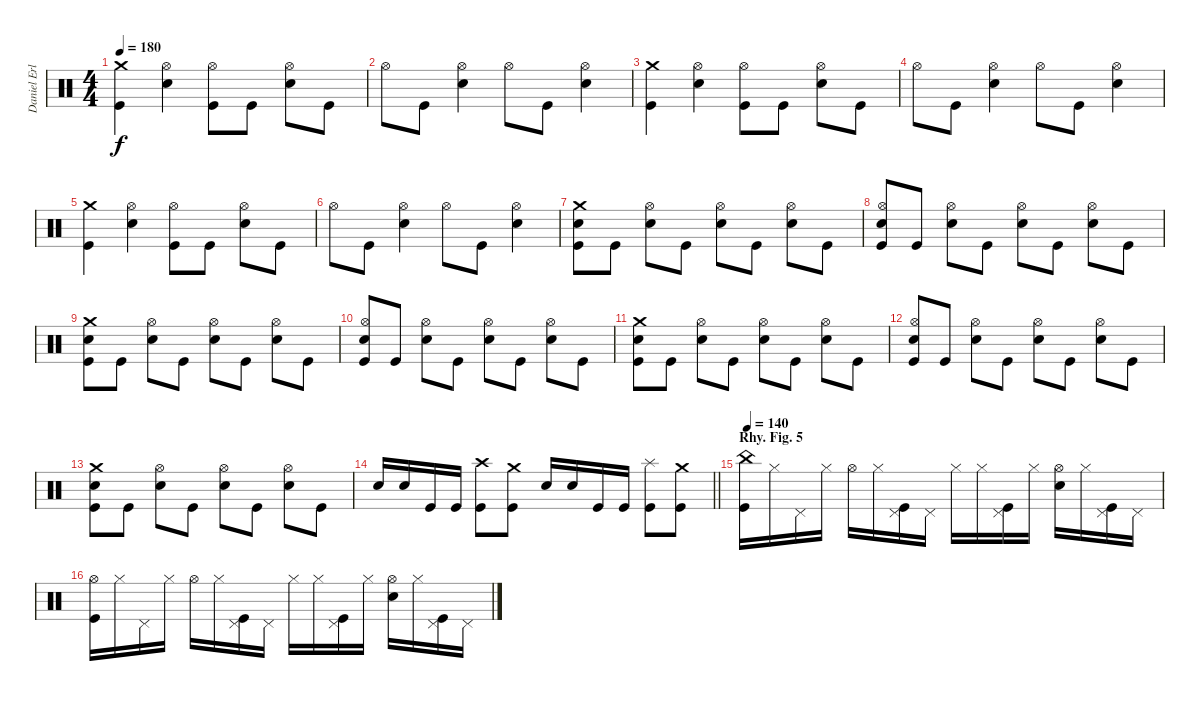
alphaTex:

\track ("Daniel Erlandson" "Daniel Erl") {instrument percussion}
\staff {score}
\articulation defaults
\ts (4 4)
\tempo 180
\clef neutral
\ks c
("Crash medium (hit)" "Kick (hit)").4{dy f} ("Hi-Hat (open)" "Electric Snare (hit)").4 ("Hi-Hat (open)" "Kick (hit)").8 "Kick (hit)".8 ("Hi-Hat (open)" "Electric Snare (hit)").8 "Kick (hit)".8 |
"Hi-Hat (open)".8 "Kick (hit)".8 ("Hi-Hat (open)" "Electric Snare (hit)").4 "Hi-Hat (open)".8 "Kick (hit)".8 ("Hi-Hat (open)" "Electric Snare (hit)").4 |
("Crash medium (hit)" "Kick (hit)").4 ("Hi-Hat (open)" "Electric Snare (hit)").4 ("Hi-Hat (open)" "Kick (hit)").8 "Kick (hit)".8 ("Hi-Hat (open)" "Electric Snare (hit)").8 "Kick (hit)".8 |
"Hi-Hat (open)".8 "Kick (hit)".8 ("Hi-Hat (open)" "Electric Snare (hit)").4 "Hi-Hat (open)".8 "Kick (hit)".8 ("Hi-Hat (open)" "Electric Snare (hit)").4 |
("Crash medium (hit)" "Kick (hit)").4 ("Hi-Hat (open)" "Electric Snare (hit)").4 ("Hi-Hat (open)" "Kick (hit)").8 "Kick (hit)".8 ("Hi-Hat (open)" "Electric Snare (hit)").8 "Kick (hit)".8 |
"Hi-Hat (open)".8 "Kick (hit)".8 ("Hi-Hat (open)" "Electric Snare (hit)").4 "Hi-Hat (open)".8 "Kick (hit)".8 ("Hi-Hat (open)" "Electric Snare (hit)").4 |
("Crash medium (hit)" "Electric Snare (hit)" "Kick (hit)").8 "Kick (hit)".8 ("Hi-Hat (open)" "Electric Snare (hit)").8 "Kick (hit)".8 ("Hi-Hat (open)" "Electric Snare (hit)").8 "Kick (hit)".8 ("Hi-Hat (open)" "Electric Snare (hit)").8 "Kick (hit)".8 |
("Hi-Hat (open)" "Electric Snare (hit)" "Kick (hit)").8 "Kick (hit)".8 ("Hi-Hat (open)" "Electric Snare (hit)").8 "Kick (hit)".8 ("Hi-Hat (open)" "Electric Snare (hit)").8 "Kick (hit)".8 ("Hi-Hat (open)" "Electric Snare (hit)").8 "Kick (hit)".8 |
("Crash medium (hit)" "Electric Snare (hit)" "Kick (hit)").8 "Kick (hit)".8 ("Hi-Hat (open)" "Electric Snare (hit)").8 "Kick (hit)".8 ("Hi-Hat (open)" "Electric Snare (hit)").8 "Kick (hit)".8 ("Hi-Hat (open)" "Electric Snare (hit)").8 "Kick (hit)".8 |
("Hi-Hat (open)" "Electric Snare (hit)" "Kick (hit)").8 "Kick (hit)".8 ("Hi-Hat (open)" "Electric Snare (hit)").8 "Kick (hit)".8 ("Hi-Hat (open)" "Electric Snare (hit)").8 "Kick (hit)".8 ("Hi-Hat (open)" "Electric Snare (hit)").8 "Kick (hit)".8 |
("Crash medium (hit)" "Electric Snare (hit)" "Kick (hit)").8 "Kick (hit)".8 ("Hi-Hat (open)" "Electric Snare (hit)").8 "Kick (hit)".8 ("Hi-Hat (open)" "Electric Snare (hit)").8 "Kick (hit)".8 ("Hi-Hat (open)" "Electric Snare (hit)").8 "Kick (hit)".8 |
("Hi-Hat (open)" "Electric Snare (hit)" "Kick (hit)").8 "Kick (hit)".8 ("Hi-Hat (open)" "Electric Snare (hit)").8 "Kick (hit)".8 ("Hi-Hat (open)" "Electric Snare (hit)").8 "Kick (hit)".8 ("Hi-Hat (open)" "Electric Snare (hit)").8 "Kick (hit)".8 |
("Crash medium (hit)" "Electric Snare (hit)" "Kick (hit)").8 "Kick (hit)".8 ("Hi-Hat (open)" "Electric Snare (hit)").8 "Kick (hit)".8 ("Hi-Hat (open)" "Electric Snare (hit)").8 "Kick (hit)".8 ("Hi-Hat (open)" "Electric Snare (hit)").8 "Kick (hit)".8 |
\barLineRight lightlight "Electric Snare (hit)".16 "Electric Snare (hit)".16 "Kick (hit)".16 "Kick (hit)".16
("Crash high (hit)" "Kick (hit)").8 ("Crash medium (hit)" "Kick (hit)").8 "Electric Snare (hit)".16 "Electric Snare (hit)".16 "Kick (hit)".16 "Kick (hit)".16 ("Splash (hit)" "Kick (hit)").8 ("Crash medium (hit)" "Kick (hit)").8 |
\section ("" "Rhy. Fig. 5")
\tempo 140
("China (hit)" "Kick (hit)").16 "Hi-Hat (closed)".16 "Pedal Hi-Hat (hit)".16 "Hi-Hat (closed)".16 "Hi-Hat (open)".16 "Hi-Hat (closed)".16 ("Pedal Hi-Hat (hit)" "Kick (hit)").16 "Pedal Hi-Hat (hit)".16 "Hi-Hat (closed)".16 "Hi-Hat (closed)".16 ("Pedal Hi-Hat (hit)" "Kick (hit)").16 "Hi-Hat (closed)".16 ("Hi-Hat (open)" "Electric Snare (hit)").16 "Hi-Hat (closed)".16 ("Pedal Hi-Hat (hit)" "Kick (hit)").16 "Pedal Hi-Hat (hit)".16 |
("Hi-Hat (open)" "Kick (hit)").16 "Hi-Hat (closed)".16 "Pedal Hi-Hat (hit)".16 "Hi-Hat (closed)".16 "Hi-Hat (open)".16 "Hi-Hat (closed)".16 ("Pedal Hi-Hat (hit)" "Kick (hit)").16 "Pedal Hi-Hat (hit)".16 "Hi-Hat (closed)".16 "Hi-Hat (closed)".16 ("Pedal Hi-Hat (hit)" "Kick (hit)").16 "Hi-Hat (closed)".16 ("Hi-Hat (open)" "Electric Snare (hit)").16 "Hi-Hat (closed)".16 ("Pedal Hi-Hat (hit)" "Kick (hit)").16 "Pedal Hi-Hat (hit)".16
